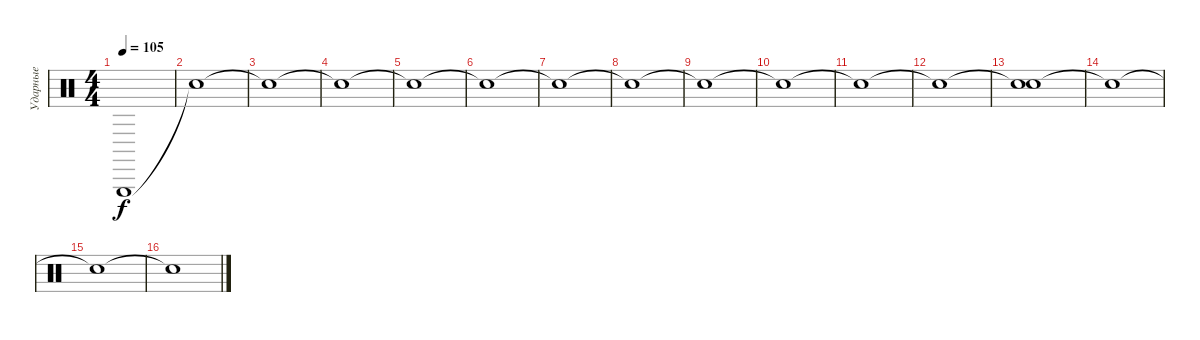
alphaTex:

\track ("Ударные" "Ударные") {instrument percussion}
\staff {score}
\articulation defaults
\ts (4 4)
\tempo 105
\clef neutral
\ks c "Triangle (hit)".1{dy f}
|
"Snare (hit)"{t}.1 |
"Snare (hit)"{t}.1 |
"Snare (hit)"{t}.1 |
"Snare (hit)"{t}.1 |
"Snare (hit)"{t}.1 |
"Snare (hit)"{t}.1 |
"Snare (hit)"{t}.1 |
"Snare (hit)"{t}.1 |
"Snare (hit)"{t}.1 |
"Snare (hit)"{t}.1 |
"Snare (hit)"{t}.1 |
("Snare (hit)"{t} "Snare (hit)").1 |
"Snare (hit)"{t}.1 |
"Snare (hit)"{t}.1 |
"Snare (hit)"{t}.1
